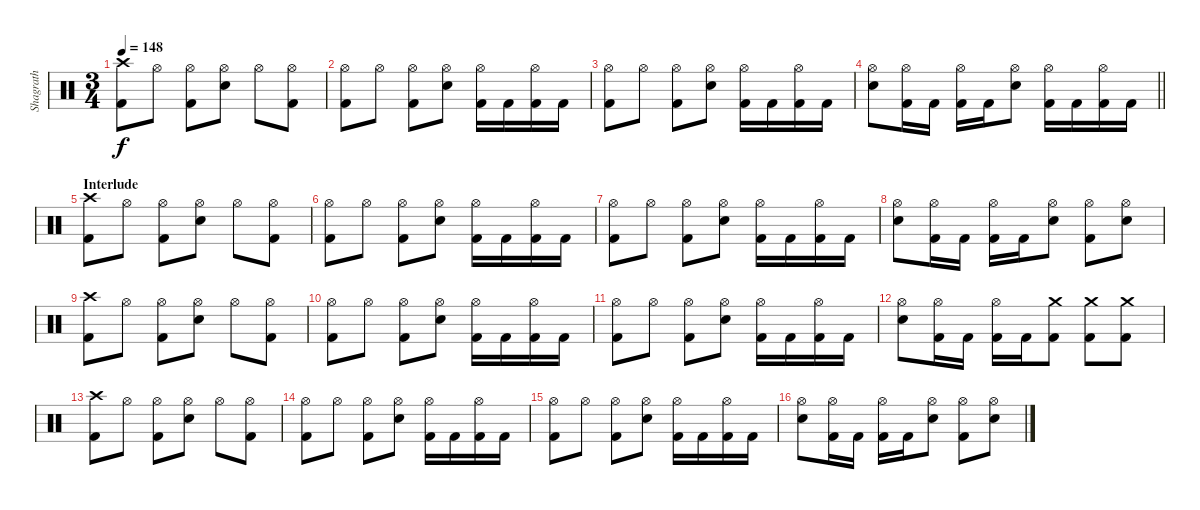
\track ("Shagrath" "Shagrath") {instrument percussion}
\staff {score}
\articulation defaults
\ts (3 4)
\tempo 148
\clef neutral
\ks c
("Crash high (hit)" "Kick (hit) 2").8{dy f} "Hi-Hat (open)".8 ("Hi-Hat (open)" "Kick (hit) 2").8 ("Hi-Hat (open)" "Electric Snare (hit)").8 "Hi-Hat (open)".8 ("Hi-Hat (open)" "Kick (hit) 2").8 |
("Hi-Hat (open)" "Kick (hit) 2").8 "Hi-Hat (open)".8 ("Hi-Hat (open)" "Kick (hit) 2").8 ("Hi-Hat (open)" "Electric Snare (hit)").8 ("Hi-Hat (open)" "Kick (hit) 2").16 "Kick (hit) 2".16 ("Hi-Hat (open)" "Kick (hit) 2").16 "Kick (hit) 2".16 |
("Hi-Hat (open)" "Kick (hit) 2").8 "Hi-Hat (open)".8 ("Hi-Hat (open)" "Kick (hit) 2").8 ("Hi-Hat (open)" "Electric Snare (hit)").8 ("Hi-Hat (open)" "Kick (hit) 2").16 "Kick (hit) 2".16 ("Hi-Hat (open)" "Kick (hit) 2").16 "Kick (hit) 2".16 |
\barLineRight lightlight
("Hi-Hat (open)" "Electric Snare (hit)").8 ("Hi-Hat (open)" "Kick (hit) 2").16 "Kick (hit) 2".16 ("Hi-Hat (open)" "Kick (hit) 2").16 "Kick (hit) 2".16 ("Hi-Hat (open)" "Electric Snare (hit)").8 ("Hi-Hat (open)" "Kick (hit) 2").16 "Kick (hit) 2".16 ("Hi-Hat (open)" "Kick (hit) 2").16 "Kick (hit) 2".16 |
\section ("" "Interlude")
("Crash high (hit)" "Kick (hit) 2").8 "Hi-Hat (open)".8 ("Hi-Hat (open)" "Kick (hit) 2").8 ("Hi-Hat (open)" "Electric Snare (hit)").8 "Hi-Hat (open)".8 ("Hi-Hat (open)" "Kick (hit) 2").8 |
("Hi-Hat (open)" "Kick (hit) 2").8 "Hi-Hat (open)".8 ("Hi-Hat (open)" "Kick (hit) 2").8 ("Hi-Hat (open)" "Electric Snare (hit)").8 ("Hi-Hat (open)" "Kick (hit) 2").16 "Kick (hit) 2".16 ("Hi-Hat (open)" "Kick (hit) 2").16 "Kick (hit) 2".16 |
("Hi-Hat (open)" "Kick (hit) 2").8 "Hi-Hat (open)".8 ("Hi-Hat (open)" "Kick (hit) 2").8 ("Hi-Hat (open)" "Electric Snare (hit)").8 ("Hi-Hat (open)" "Kick (hit) 2").16 "Kick (hit) 2".16 ("Hi-Hat (open)" "Kick (hit) 2").16 "Kick (hit) 2".16 |
("Hi-Hat (open)" "Electric Snare (hit)").8 ("Hi-Hat (open)" "Kick (hit) 2").16 "Kick (hit) 2".16 ("Hi-Hat (open)" "Kick (hit) 2").16 "Kick (hit) 2".16 ("Hi-Hat (open)" "Electric Snare (hit)").8 ("Hi-Hat (open)" "Kick (hit) 2").8 ("Hi-Hat (open)" "Electric Snare (hit)").8 |
("Crash high (hit)" "Kick (hit) 2").8 "Hi-Hat (open)".8 ("Hi-Hat (open)" "Kick (hit) 2").8 ("Hi-Hat (open)" "Electric Snare (hit)").8 "Hi-Hat (open)".8 ("Hi-Hat (open)" "Kick (hit) 2").8 |
("Hi-Hat (open)" "Kick (hit) 2").8 "Hi-Hat (open)".8 ("Hi-Hat (open)" "Kick (hit) 2").8 ("Hi-Hat (open)" "Electric Snare (hit)").8 ("Hi-Hat (open)" "Kick (hit) 2").16 "Kick (hit) 2".16 ("Hi-Hat (open)" "Kick (hit) 2").16 "Kick (hit) 2".16 |
("Hi-Hat (open)" "Kick (hit) 2").8 "Hi-Hat (open)".8 ("Hi-Hat (open)" "Kick (hit) 2").8 ("Hi-Hat (open)" "Electric Snare (hit)").8 ("Hi-Hat (open)" "Kick (hit) 2").16 "Kick (hit) 2".16 ("Hi-Hat (open)" "Kick (hit) 2").16 "Kick (hit) 2".16 |
("Hi-Hat (open)" "Electric Snare (hit)").8 ("Hi-Hat (open)" "Kick (hit) 2").16 "Kick (hit) 2".16 ("Hi-Hat (open)" "Kick (hit) 2").16 "Kick (hit) 2".16 ("Crash medium (hit)" "Kick (hit) 2").8 ("Crash medium (hit)" "Kick (hit) 2").8 ("Crash medium (hit)" "Kick (hit) 2").8 |
("Crash high (hit)" "Kick (hit) 2").8 "Hi-Hat (open)".8 ("Hi-Hat (open)" "Kick (hit) 2").8 ("Hi-Hat (open)" "Electric Snare (hit)").8 "Hi-Hat (open)".8 ("Hi-Hat (open)" "Kick (hit) 2").8 |
("Hi-Hat (open)" "Kick (hit) 2").8 "Hi-Hat (open)".8 ("Hi-Hat (open)" "Kick (hit) 2").8 ("Hi-Hat (open)" "Electric Snare (hit)").8 ("Hi-Hat (open)" "Kick (hit) 2").16 "Kick (hit) 2".16 ("Hi-Hat (open)" "Kick (hit) 2").16 "Kick (hit) 2".16 |
("Hi-Hat (open)" "Kick (hit) 2").8 "Hi-Hat (open)".8 ("Hi-Hat (open)" "Kick (hit) 2").8 ("Hi-Hat (open)" "Electric Snare (hit)").8 ("Hi-Hat (open)" "Kick (hit) 2").16 "Kick (hit) 2".16 ("Hi-Hat (open)" "Kick (hit) 2").16 "Kick (hit) 2".16 |
("Hi-Hat (open)" "Electric Snare (hit)").8 ("Hi-Hat (open)" "Kick (hit) 2").16 "Kick (hit) 2".16 ("Hi-Hat (open)" "Kick (hit) 2").16 "Kick (hit) 2".16 ("Hi-Hat (open)" "Electric Snare (hit)").8 ("Hi-Hat (open)" "Kick (hit) 2").8 ("Hi-Hat (open)" "Electric Snare (hit)").8
